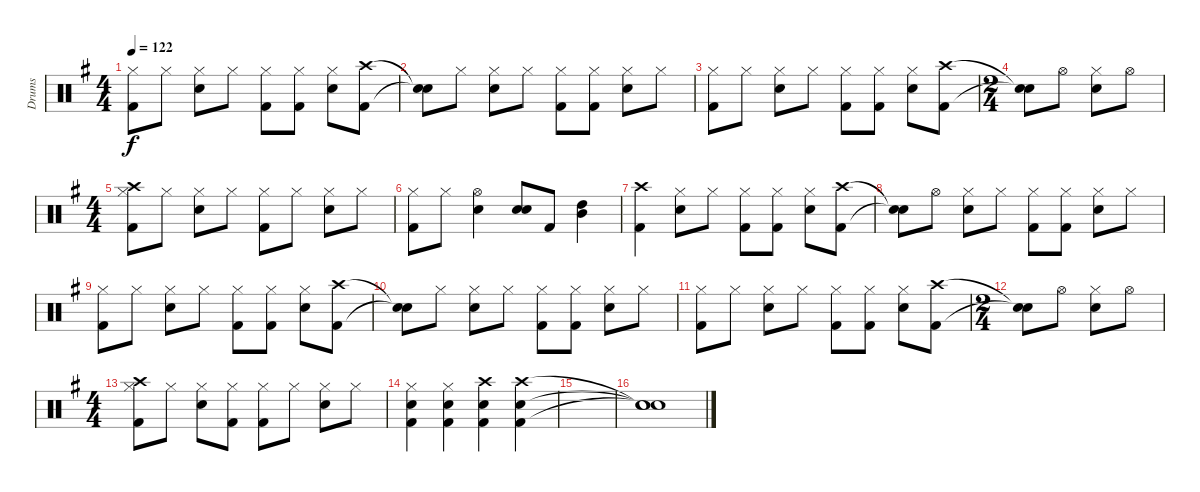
\track ("Drums" "Drums") {instrument percussion}
\staff {score}
\articulation defaults
\ts (4 4)
\tempo 122
\clef neutral
\ks g
("Hi-Hat (closed)" "Kick (hit) 2").8{dy f} "Hi-Hat (closed)".8 ("Hi-Hat (closed)" "Electric Snare (hit)").8 "Hi-Hat (closed)".8 ("Hi-Hat (closed)" "Kick (hit) 2").8 ("Hi-Hat (closed)" "Kick (hit) 2").8 ("Hi-Hat (closed)" "Electric Snare (hit)").8 ("Crash high (hit)" "Kick (hit) 2").8 |
("Snare (hit)"{t} "Snare (hit)"{t}).8 "Hi-Hat (closed)".8 ("Hi-Hat (closed)" "Electric Snare (hit)").8 "Hi-Hat (closed)".8 ("Hi-Hat (closed)" "Kick (hit) 2").8 ("Hi-Hat (closed)" "Kick (hit) 2").8 ("Hi-Hat (closed)" "Electric Snare (hit)").8 "Hi-Hat (closed)".8 |
("Hi-Hat (closed)" "Kick (hit) 2").8 "Hi-Hat (closed)".8 ("Hi-Hat (closed)" "Electric Snare (hit)").8 "Hi-Hat (closed)".8 ("Hi-Hat (closed)" "Kick (hit) 2").8 ("Hi-Hat (closed)" "Kick (hit) 2").8 ("Hi-Hat (closed)" "Electric Snare (hit)").8 ("Crash high (hit)" "Kick (hit) 2").8 |
\ts (2 4)
("Snare (hit)"{t} "Snare (hit)"{t}).8 "Hi-Hat (open)".8 ("Hi-Hat (closed)" "Electric Snare (hit)").8 "Hi-Hat (open)".8 |
\ts (4 4)
("Hi-Hat (closed)" "Crash high (hit)" "Kick (hit) 2").8 "Hi-Hat (closed)".8 ("Hi-Hat (closed)" "Electric Snare (hit)").8 "Hi-Hat (closed)".8 ("Hi-Hat (closed)" "Kick (hit) 2").8 "Hi-Hat (closed)".8 ("Hi-Hat (closed)" "Electric Snare (hit)").8 "Hi-Hat (closed)".8 |
("Hi-Hat (closed)" "Kick (hit) 2").8 "Hi-Hat (closed)".8 ("Hi-Hat (open)" "Electric Snare (hit)").4 ("Snare (hit) 2" "Electric Snare (hit)").8 "Kick (hit) 2".8 ("Mid Tom (hit)" "High Tom (hit)").4 |
("Crash high (hit)" "Kick (hit) 2").4 ("Hi-Hat (closed)" "Electric Snare (hit)").8 "Hi-Hat (closed)".8 ("Hi-Hat (closed)" "Kick (hit) 2").8 ("Hi-Hat (closed)" "Kick (hit) 2").8 ("Hi-Hat (closed)" "Electric Snare (hit)").8 ("Crash high (hit)" "Kick (hit) 2").8 |
("Snare (hit)"{t} "Snare (hit)"{t}).8 "Hi-Hat (open)".8 ("Hi-Hat (closed)" "Electric Snare (hit)").8 "Hi-Hat (closed)".8 ("Hi-Hat (closed)" "Kick (hit) 2").8 ("Hi-Hat (closed)" "Kick (hit) 2").8 ("Hi-Hat (closed)" "Electric Snare (hit)").8 "Hi-Hat (closed)".8 |
("Hi-Hat (closed)" "Kick (hit) 2").8 "Hi-Hat (closed)".8 ("Hi-Hat (closed)" "Electric Snare (hit)").8 "Hi-Hat (closed)".8 ("Hi-Hat (closed)" "Kick (hit) 2").8 ("Hi-Hat (closed)" "Kick (hit) 2").8 ("Hi-Hat (closed)" "Electric Snare (hit)").8 ("Crash high (hit)" "Kick (hit) 2").8 |
("Snare (hit)"{t} "Snare (hit)"{t}).8 "Hi-Hat (closed)".8 ("Hi-Hat (closed)" "Electric Snare (hit)").8 "Hi-Hat (closed)".8 ("Hi-Hat (closed)" "Kick (hit) 2").8 ("Hi-Hat (closed)" "Kick (hit) 2").8 ("Hi-Hat (closed)" "Electric Snare (hit)").8 "Hi-Hat (closed)".8 |
("Hi-Hat (closed)" "Kick (hit) 2").8 "Hi-Hat (closed)".8 ("Hi-Hat (closed)" "Electric Snare (hit)").8 "Hi-Hat (closed)".8 ("Hi-Hat (closed)" "Kick (hit) 2").8 ("Hi-Hat (closed)" "Kick (hit) 2").8 ("Hi-Hat (closed)" "Electric Snare (hit)").8 ("Crash high (hit)" "Kick (hit) 2").8 |
\ts (2 4)
("Snare (hit)"{t} "Snare (hit)"{t}).8 "Hi-Hat (open)".8 ("Hi-Hat (closed)" "Electric Snare (hit)").8 "Hi-Hat (open)".8 |
\ts (4 4)
("Hi-Hat (closed)" "Crash high (hit)" "Kick (hit) 2").8 "Hi-Hat (closed)".8 ("Hi-Hat (closed)" "Electric Snare (hit)").8 ("Hi-Hat (closed)" "Kick (hit) 2").8 ("Hi-Hat (closed)" "Kick (hit) 2").8 "Hi-Hat (closed)".8 ("Hi-Hat (closed)" "Electric Snare (hit)").8 "Hi-Hat (closed)".8 |
("Hi-Hat (closed)" "Electric Snare (hit)" "Kick (hit) 2").4 ("Hi-Hat (closed)" "Electric Snare (hit)" "Kick (hit) 2").4 ("Crash high (hit)" "Electric Snare (hit)" "Kick (hit) 2").4 ("Crash high (hit)" "Electric Snare (hit)" "Kick (hit) 2").4 |
|
("Snare (hit)"{t} "Snare (hit)"{t} "Snare (hit)"{t}).1
